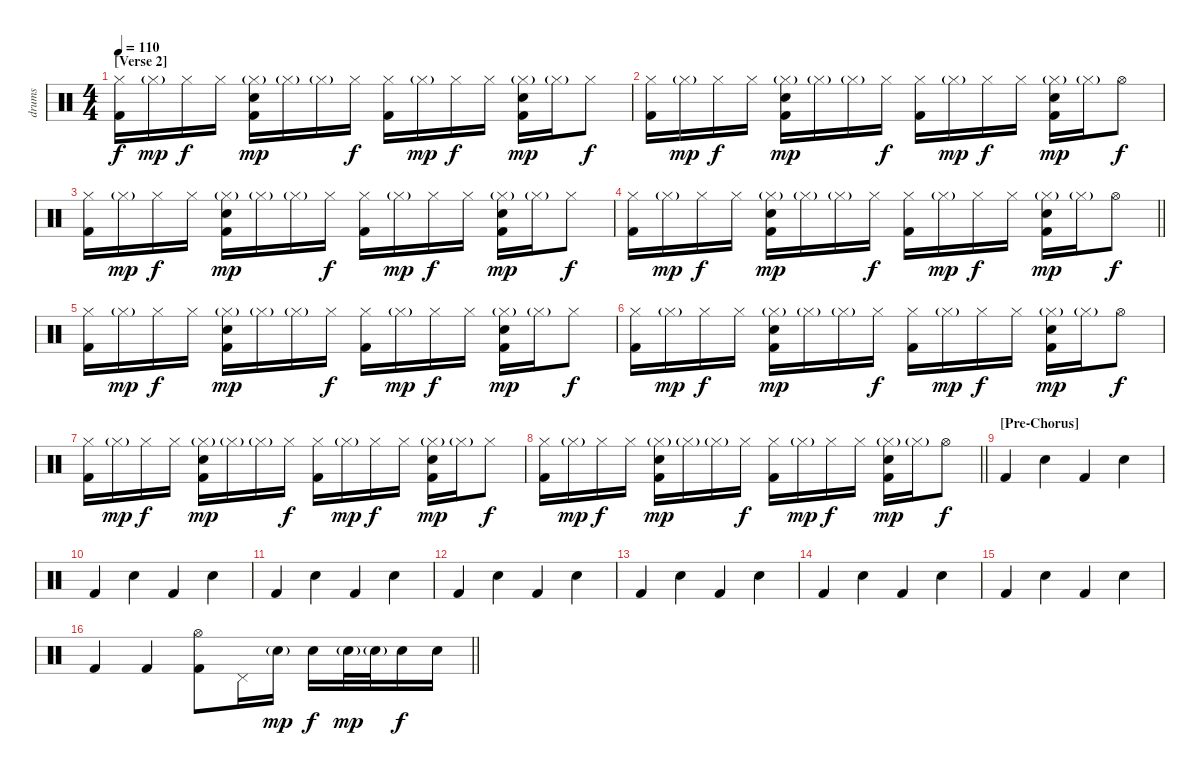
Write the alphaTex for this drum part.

\track ("drums" "drums") {instrument percussion}
\staff {score}
\articulation defaults
\ts (4 4)
\section ("" "[Verse 2]")
\tempo 110
\clef neutral
\ks c
("Hi-Hat (closed)" "Kick (hit) 2").16{dy f} "Hi-Hat (closed)"{g}.16{dy mp} "Hi-Hat (closed)".16{dy f} "Hi-Hat (closed)".16 ("Hi-Hat (closed)"{g} "Electric Snare (hit)" "Kick (hit) 2").16{dy mp} "Hi-Hat (closed)"{g}.16 "Hi-Hat (closed)"{g}.16 "Hi-Hat (closed)".16{dy f} ("Hi-Hat (closed)" "Kick (hit) 2").16 "Hi-Hat (closed)"{g}.16{dy mp} "Hi-Hat (closed)".16{dy f} "Hi-Hat (closed)".16 ("Hi-Hat (closed)"{g} "Electric Snare (hit)" "Kick (hit) 2").16{dy mp} "Hi-Hat (closed)"{g}.16 "Hi-Hat (closed)".8{dy f} |
("Hi-Hat (closed)" "Kick (hit) 2").16 "Hi-Hat (closed)"{g}.16{dy mp} "Hi-Hat (closed)".16{dy f} "Hi-Hat (closed)".16 ("Hi-Hat (closed)"{g} "Electric Snare (hit)" "Kick (hit) 2").16{dy mp} "Hi-Hat (closed)"{g}.16 "Hi-Hat (closed)"{g}.16 "Hi-Hat (closed)".16{dy f} ("Hi-Hat (closed)" "Kick (hit) 2").16 "Hi-Hat (closed)"{g}.16{dy mp} "Hi-Hat (closed)".16{dy f} "Hi-Hat (closed)".16 ("Hi-Hat (closed)"{g} "Electric Snare (hit)" "Kick (hit) 2").16{dy mp} "Hi-Hat (closed)"{g}.16 "Hi-Hat (open)".8{dy f} |
("Hi-Hat (closed)" "Kick (hit) 2").16 "Hi-Hat (closed)"{g}.16{dy mp} "Hi-Hat (closed)".16{dy f} "Hi-Hat (closed)".16 ("Hi-Hat (closed)"{g} "Electric Snare (hit)" "Kick (hit) 2").16{dy mp} "Hi-Hat (closed)"{g}.16 "Hi-Hat (closed)"{g}.16 "Hi-Hat (closed)".16{dy f} ("Hi-Hat (closed)" "Kick (hit) 2").16 "Hi-Hat (closed)"{g}.16{dy mp} "Hi-Hat (closed)".16{dy f} "Hi-Hat (closed)".16 ("Hi-Hat (closed)"{g} "Electric Snare (hit)" "Kick (hit) 2").16{dy mp} "Hi-Hat (closed)"{g}.16 "Hi-Hat (closed)".8{dy f} |
\barLineRight lightlight
("Hi-Hat (closed)" "Kick (hit) 2").16 "Hi-Hat (closed)"{g}.16{dy mp} "Hi-Hat (closed)".16{dy f} "Hi-Hat (closed)".16 ("Hi-Hat (closed)"{g} "Electric Snare (hit)" "Kick (hit) 2").16{dy mp} "Hi-Hat (closed)"{g}.16 "Hi-Hat (closed)"{g}.16 "Hi-Hat (closed)".16{dy f} ("Hi-Hat (closed)" "Kick (hit) 2").16 "Hi-Hat (closed)"{g}.16{dy mp} "Hi-Hat (closed)".16{dy f} "Hi-Hat (closed)".16 ("Hi-Hat (closed)"{g} "Electric Snare (hit)" "Kick (hit) 2").16{dy mp} "Hi-Hat (closed)"{g}.16 "Hi-Hat (open)".8{dy f} |
("Hi-Hat (closed)" "Kick (hit) 2").16 "Hi-Hat (closed)"{g}.16{dy mp} "Hi-Hat (closed)".16{dy f} "Hi-Hat (closed)".16 ("Hi-Hat (closed)"{g} "Electric Snare (hit)" "Kick (hit) 2").16{dy mp} "Hi-Hat (closed)"{g}.16 "Hi-Hat (closed)"{g}.16 "Hi-Hat (closed)".16{dy f} ("Hi-Hat (closed)" "Kick (hit) 2").16 "Hi-Hat (closed)"{g}.16{dy mp} "Hi-Hat (closed)".16{dy f} "Hi-Hat (closed)".16 ("Hi-Hat (closed)"{g} "Electric Snare (hit)" "Kick (hit) 2").16{dy mp} "Hi-Hat (closed)"{g}.16 "Hi-Hat (closed)".8{dy f} |
("Hi-Hat (closed)" "Kick (hit) 2").16 "Hi-Hat (closed)"{g}.16{dy mp} "Hi-Hat (closed)".16{dy f} "Hi-Hat (closed)".16 ("Hi-Hat (closed)"{g} "Electric Snare (hit)" "Kick (hit) 2").16{dy mp} "Hi-Hat (closed)"{g}.16 "Hi-Hat (closed)"{g}.16 "Hi-Hat (closed)".16{dy f} ("Hi-Hat (closed)" "Kick (hit) 2").16 "Hi-Hat (closed)"{g}.16{dy mp} "Hi-Hat (closed)".16{dy f} "Hi-Hat (closed)".16 ("Hi-Hat (closed)"{g} "Electric Snare (hit)" "Kick (hit) 2").16{dy mp} "Hi-Hat (closed)"{g}.16 "Hi-Hat (open)".8{dy f} |
("Hi-Hat (closed)" "Kick (hit) 2").16 "Hi-Hat (closed)"{g}.16{dy mp} "Hi-Hat (closed)".16{dy f} "Hi-Hat (closed)".16 ("Hi-Hat (closed)"{g} "Electric Snare (hit)" "Kick (hit) 2").16{dy mp} "Hi-Hat (closed)"{g}.16 "Hi-Hat (closed)"{g}.16 "Hi-Hat (closed)".16{dy f} ("Hi-Hat (closed)" "Kick (hit) 2").16 "Hi-Hat (closed)"{g}.16{dy mp} "Hi-Hat (closed)".16{dy f} "Hi-Hat (closed)".16 ("Hi-Hat (closed)"{g} "Electric Snare (hit)" "Kick (hit) 2").16{dy mp} "Hi-Hat (closed)"{g}.16 "Hi-Hat (closed)".8{dy f} |
\barLineRight lightlight
("Hi-Hat (closed)" "Kick (hit) 2").16 "Hi-Hat (closed)"{g}.16{dy mp} "Hi-Hat (closed)".16{dy f} "Hi-Hat (closed)".16 ("Hi-Hat (closed)"{g} "Electric Snare (hit)" "Kick (hit) 2").16{dy mp} "Hi-Hat (closed)"{g}.16 "Hi-Hat (closed)"{g}.16 "Hi-Hat (closed)".16{dy f} ("Hi-Hat (closed)" "Kick (hit) 2").16 "Hi-Hat (closed)"{g}.16{dy mp} "Hi-Hat (closed)".16{dy f} "Hi-Hat (closed)".16 ("Hi-Hat (closed)"{g} "Electric Snare (hit)" "Kick (hit) 2").16{dy mp} "Hi-Hat (closed)"{g}.16 "Hi-Hat (open)".8{dy f} |
\section ("" "[Pre-Chorus]")
"Kick (hit) 2".4 "Hand Clap (hit)".4 "Kick (hit) 2".4 "Hand Clap (hit)".4 |
"Kick (hit) 2".4 "Hand Clap (hit)".4 "Kick (hit) 2".4 "Hand Clap (hit)".4 |
"Kick (hit) 2".4 "Hand Clap (hit)".4 "Kick (hit) 2".4 "Hand Clap (hit)".4 |
"Kick (hit) 2".4 "Hand Clap (hit)".4 "Kick (hit) 2".4 "Hand Clap (hit)".4 |
"Kick (hit) 2".4 "Hand Clap (hit)".4 "Kick (hit) 2".4 "Hand Clap (hit)".4 |
"Kick (hit) 2".4 "Hand Clap (hit)".4 "Kick (hit) 2".4 "Hand Clap (hit)".4 |
"Kick (hit) 2".4 "Hand Clap (hit)".4 "Kick (hit) 2".4 "Hand Clap (hit)".4 |
\barLineRight lightlight "Kick (hit) 2".4 "Kick (hit) 2".4
("Hi-Hat (open)" "Kick (hit) 2").8 "Pedal Hi-Hat (hit)".16 "Electric Snare (hit)"{g}.16{dy mp} "Electric Snare (hit)".16{dy f} "Electric Snare (hit)"{g}.32{dy mp} "Electric Snare (hit)"{g}.32 "Electric Snare (hit)".16{dy f} "Electric Snare (hit)".16
